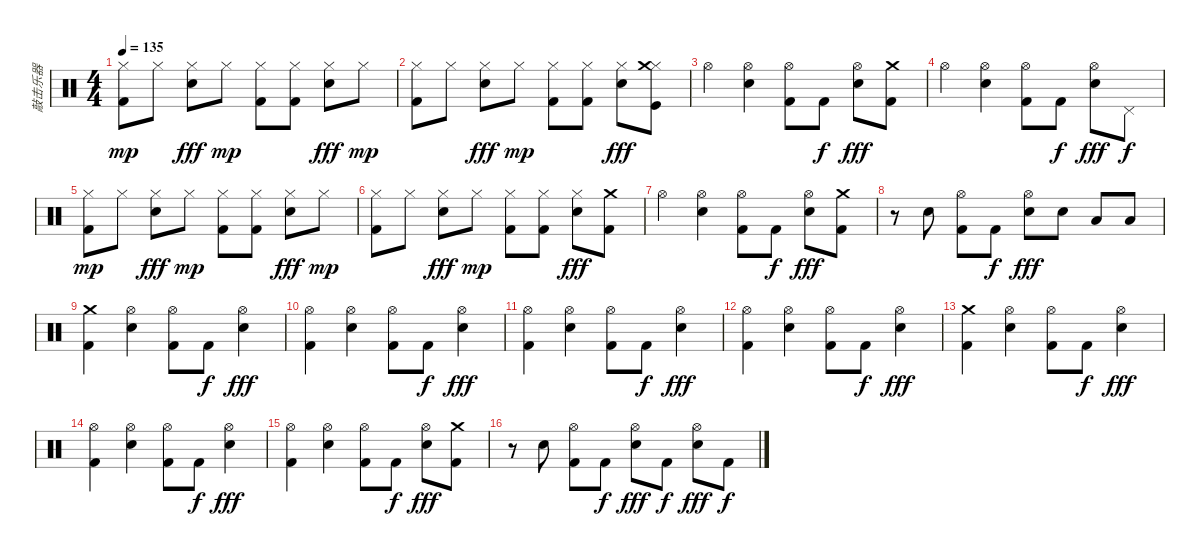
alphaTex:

\track ("敲击乐器" "敲击乐器") {instrument percussion}
\staff {score}
\articulation defaults
\ts (4 4)
\tempo 135
\clef neutral
\ks c
("Hi-Hat (closed)" "Kick (hit) 2").8{dy mp} "Hi-Hat (closed)".8 ("Hi-Hat (closed)" "Electric Snare (hit)").8{dy fff} "Hi-Hat (closed)".8{dy mp} ("Hi-Hat (closed)" "Kick (hit) 2").8 ("Hi-Hat (closed)" "Kick (hit) 2").8 ("Hi-Hat (closed)" "Electric Snare (hit)").8{dy fff} "Hi-Hat (closed)".8{dy mp} |
("Hi-Hat (closed)" "Kick (hit) 2").8 "Hi-Hat (closed)".8 ("Hi-Hat (closed)" "Electric Snare (hit)").8{dy fff} "Hi-Hat (closed)".8{dy mp} ("Hi-Hat (closed)" "Kick (hit) 2").8 ("Hi-Hat (closed)" "Kick (hit) 2").8 ("Hi-Hat (closed)" "Electric Snare (hit)").8{dy fff} ("Hi-Hat (closed)" "Crash medium (hit)" "Kick (hit)").8 |
"Hi-Hat (open)".4 ("Hi-Hat (open)" "Electric Snare (hit)").4 ("Hi-Hat (open)" "Kick (hit) 2").8 "Kick (hit) 2".8{dy f} ("Hi-Hat (open)" "Electric Snare (hit)").8{dy fff} ("Kick (hit) 2" "Crash medium (hit)").8 |
"Hi-Hat (open)".4 ("Hi-Hat (open)" "Electric Snare (hit)").4 ("Hi-Hat (open)" "Kick (hit) 2").8 "Kick (hit) 2".8{dy f} ("Hi-Hat (open)" "Electric Snare (hit)").8{dy fff} "Pedal Hi-Hat (hit)".8{dy f} |
("Hi-Hat (closed)" "Kick (hit) 2").8{dy mp} "Hi-Hat (closed)".8 ("Hi-Hat (closed)" "Electric Snare (hit)").8{dy fff} "Hi-Hat (closed)".8{dy mp} ("Hi-Hat (closed)" "Kick (hit) 2").8 ("Hi-Hat (closed)" "Kick (hit) 2").8 ("Hi-Hat (closed)" "Electric Snare (hit)").8{dy fff} "Hi-Hat (closed)".8{dy mp} |
("Hi-Hat (closed)" "Kick (hit) 2").8 "Hi-Hat (closed)".8 ("Hi-Hat (closed)" "Electric Snare (hit)").8{dy fff} "Hi-Hat (closed)".8{dy mp} ("Hi-Hat (closed)" "Kick (hit) 2").8 ("Hi-Hat (closed)" "Kick (hit) 2").8 ("Hi-Hat (closed)" "Electric Snare (hit)").8{dy fff} ("Kick (hit) 2" "Crash medium (hit)").8 |
"Hi-Hat (open)".4 ("Hi-Hat (open)" "Electric Snare (hit)").4 ("Hi-Hat (open)" "Kick (hit) 2").8 "Kick (hit) 2".8{dy f} ("Hi-Hat (open)" "Electric Snare (hit)").8{dy fff} ("Kick (hit) 2" "Crash medium (hit)").8 |
r.8 "Electric Snare (hit)".8 ("Hi-Hat (open)" "Kick (hit) 2").8 "Kick (hit) 2".8{dy f} ("Electric Snare (hit)" "Hi-Hat (open)").8{dy fff} "Electric Snare (hit)".8 "Low Floor Tom (hit)".8 "Low Floor Tom (hit)".8 |
("Crash medium (hit)" "Kick (hit) 2").4 ("Hi-Hat (open)" "Electric Snare (hit)").4 ("Hi-Hat (open)" "Kick (hit) 2").8 "Kick (hit) 2".8{dy f} ("Hi-Hat (open)" "Electric Snare (hit)").4{dy fff} |
("Hi-Hat (open)" "Kick (hit) 2").4 ("Hi-Hat (open)" "Electric Snare (hit)").4 ("Hi-Hat (open)" "Kick (hit) 2").8 "Kick (hit) 2".8{dy f} ("Hi-Hat (open)" "Electric Snare (hit)").4{dy fff} |
("Hi-Hat (open)" "Kick (hit) 2").4 ("Hi-Hat (open)" "Electric Snare (hit)").4 ("Hi-Hat (open)" "Kick (hit) 2").8 "Kick (hit) 2".8{dy f} ("Hi-Hat (open)" "Electric Snare (hit)").4{dy fff} |
("Hi-Hat (open)" "Kick (hit) 2").4 ("Hi-Hat (open)" "Electric Snare (hit)").4 ("Hi-Hat (open)" "Kick (hit) 2").8 "Kick (hit) 2".8{dy f} ("Hi-Hat (open)" "Electric Snare (hit)").4{dy fff} |
("Crash medium (hit)" "Kick (hit) 2").4 ("Hi-Hat (open)" "Electric Snare (hit)").4 ("Hi-Hat (open)" "Kick (hit) 2").8 "Kick (hit) 2".8{dy f} ("Hi-Hat (open)" "Electric Snare (hit)").4{dy fff} |
("Hi-Hat (open)" "Kick (hit) 2").4 ("Hi-Hat (open)" "Electric Snare (hit)").4 ("Hi-Hat (open)" "Kick (hit) 2").8 "Kick (hit) 2".8{dy f} ("Hi-Hat (open)" "Electric Snare (hit)").4{dy fff} |
("Hi-Hat (open)" "Kick (hit) 2").4 ("Hi-Hat (open)" "Electric Snare (hit)").4 ("Hi-Hat (open)" "Kick (hit) 2").8 "Kick (hit) 2".8{dy f} ("Hi-Hat (open)" "Electric Snare (hit)").8{dy fff} ("Crash medium (hit)" "Kick (hit) 2").8 |
r.8 "Electric Snare (hit)".8 ("Hi-Hat (open)" "Kick (hit) 2").8 "Kick (hit) 2".8{dy f} ("Electric Snare (hit)" "Hi-Hat (open)").8{dy fff} "Kick (hit) 2".8{dy f} ("Electric Snare (hit)" "Hi-Hat (open)").8{dy fff} "Kick (hit) 2".8{dy f}
